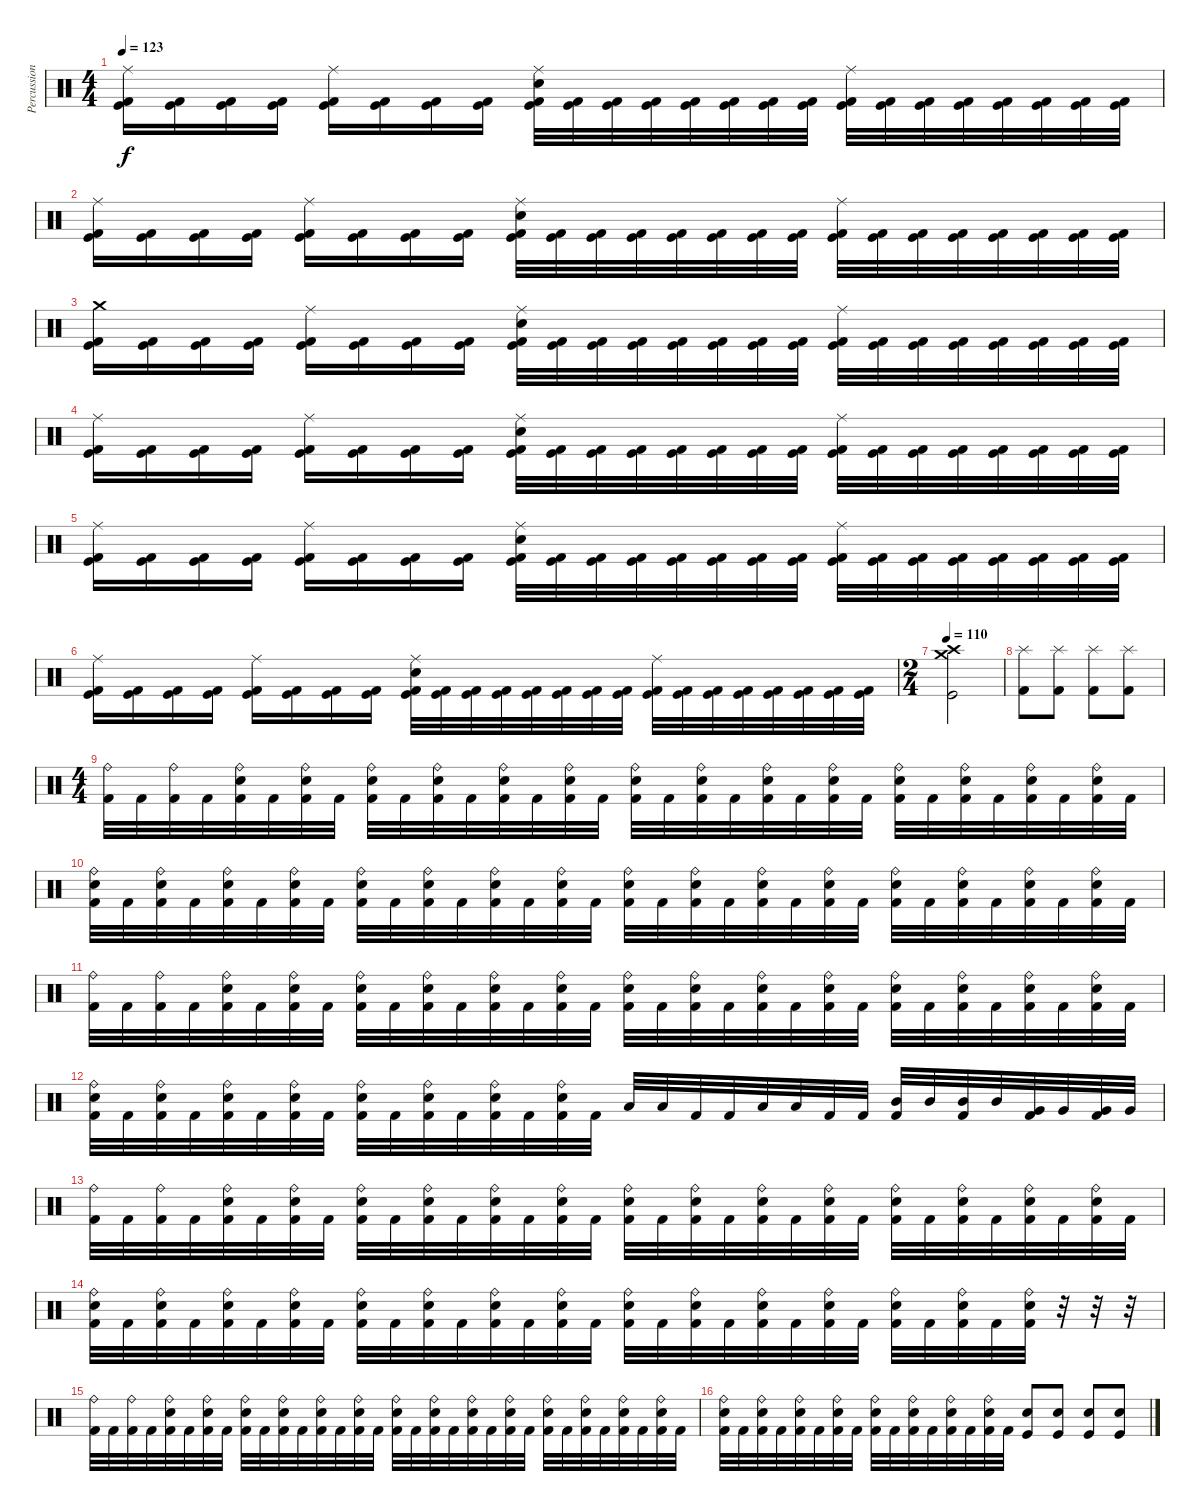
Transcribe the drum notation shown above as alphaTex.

\track ("Percussion" "Percussion") {instrument percussion}
\staff {score}
\articulation defaults
\ts (4 4)
\tempo 123
\clef neutral
\ks c
("Ride (middle)" "Kick (hit)" "Kick (hit) 2").16{dy f} ("Kick (hit)" "Kick (hit) 2").16 ("Kick (hit)" "Kick (hit) 2").16 ("Kick (hit)" "Kick (hit) 2").16 ("Ride (middle)" "Kick (hit)" "Kick (hit) 2").16 ("Kick (hit)" "Kick (hit) 2").16 ("Kick (hit)" "Kick (hit) 2").16 ("Kick (hit)" "Kick (hit) 2").16 ("Ride (middle)" "Kick (hit)" "Kick (hit) 2" "Electric Snare (hit)").32 ("Kick (hit)" "Kick (hit) 2").32 ("Kick (hit)" "Kick (hit) 2").32 ("Kick (hit)" "Kick (hit) 2").32 ("Kick (hit)" "Kick (hit) 2").32 ("Kick (hit)" "Kick (hit) 2").32 ("Kick (hit)" "Kick (hit) 2").32 ("Kick (hit)" "Kick (hit) 2").32 ("Ride (middle)" "Kick (hit)" "Kick (hit) 2").32 ("Kick (hit)" "Kick (hit) 2").32 ("Kick (hit)" "Kick (hit) 2").32 ("Kick (hit)" "Kick (hit) 2").32 ("Kick (hit)" "Kick (hit) 2").32 ("Kick (hit)" "Kick (hit) 2").32 ("Kick (hit)" "Kick (hit) 2").32 ("Kick (hit)" "Kick (hit) 2").32 |
("Ride (middle)" "Kick (hit)" "Kick (hit) 2").16 ("Kick (hit)" "Kick (hit) 2").16 ("Kick (hit)" "Kick (hit) 2").16 ("Kick (hit)" "Kick (hit) 2").16 ("Ride (middle)" "Kick (hit)" "Kick (hit) 2").16 ("Kick (hit)" "Kick (hit) 2").16 ("Kick (hit)" "Kick (hit) 2").16 ("Kick (hit)" "Kick (hit) 2").16 ("Ride (middle)" "Kick (hit)" "Kick (hit) 2" "Electric Snare (hit)").32 ("Kick (hit)" "Kick (hit) 2").32 ("Kick (hit)" "Kick (hit) 2").32 ("Kick (hit)" "Kick (hit) 2").32 ("Kick (hit)" "Kick (hit) 2").32 ("Kick (hit)" "Kick (hit) 2").32 ("Kick (hit)" "Kick (hit) 2").32 ("Kick (hit)" "Kick (hit) 2").32 ("Ride (middle)" "Kick (hit)" "Kick (hit) 2").32 ("Kick (hit)" "Kick (hit) 2").32 ("Kick (hit)" "Kick (hit) 2").32 ("Kick (hit)" "Kick (hit) 2").32 ("Kick (hit)" "Kick (hit) 2").32 ("Kick (hit)" "Kick (hit) 2").32 ("Kick (hit)" "Kick (hit) 2").32 ("Kick (hit)" "Kick (hit) 2").32 |
("Crash medium (hit)" "Kick (hit)" "Kick (hit) 2").16 ("Kick (hit)" "Kick (hit) 2").16 ("Kick (hit)" "Kick (hit) 2").16 ("Kick (hit)" "Kick (hit) 2").16 ("Ride (middle)" "Kick (hit)" "Kick (hit) 2").16 ("Kick (hit)" "Kick (hit) 2").16 ("Kick (hit)" "Kick (hit) 2").16 ("Kick (hit)" "Kick (hit) 2").16 ("Ride (middle)" "Kick (hit)" "Kick (hit) 2" "Electric Snare (hit)").32 ("Kick (hit)" "Kick (hit) 2").32 ("Kick (hit)" "Kick (hit) 2").32 ("Kick (hit)" "Kick (hit) 2").32 ("Kick (hit)" "Kick (hit) 2").32 ("Kick (hit)" "Kick (hit) 2").32 ("Kick (hit)" "Kick (hit) 2").32 ("Kick (hit)" "Kick (hit) 2").32 ("Ride (middle)" "Kick (hit)" "Kick (hit) 2").32 ("Kick (hit)" "Kick (hit) 2").32 ("Kick (hit)" "Kick (hit) 2").32 ("Kick (hit)" "Kick (hit) 2").32 ("Kick (hit)" "Kick (hit) 2").32 ("Kick (hit)" "Kick (hit) 2").32 ("Kick (hit)" "Kick (hit) 2").32 ("Kick (hit)" "Kick (hit) 2").32 |
("Ride (middle)" "Kick (hit)" "Kick (hit) 2").16 ("Kick (hit)" "Kick (hit) 2").16 ("Kick (hit)" "Kick (hit) 2").16 ("Kick (hit)" "Kick (hit) 2").16 ("Ride (middle)" "Kick (hit)" "Kick (hit) 2").16 ("Kick (hit)" "Kick (hit) 2").16 ("Kick (hit)" "Kick (hit) 2").16 ("Kick (hit)" "Kick (hit) 2").16 ("Ride (middle)" "Kick (hit)" "Kick (hit) 2" "Electric Snare (hit)").32 ("Kick (hit)" "Kick (hit) 2").32 ("Kick (hit)" "Kick (hit) 2").32 ("Kick (hit)" "Kick (hit) 2").32 ("Kick (hit)" "Kick (hit) 2").32 ("Kick (hit)" "Kick (hit) 2").32 ("Kick (hit)" "Kick (hit) 2").32 ("Kick (hit)" "Kick (hit) 2").32 ("Ride (middle)" "Kick (hit)" "Kick (hit) 2").32 ("Kick (hit)" "Kick (hit) 2").32 ("Kick (hit)" "Kick (hit) 2").32 ("Kick (hit)" "Kick (hit) 2").32 ("Kick (hit)" "Kick (hit) 2").32 ("Kick (hit)" "Kick (hit) 2").32 ("Kick (hit)" "Kick (hit) 2").32 ("Kick (hit)" "Kick (hit) 2").32 |
("Ride (middle)" "Kick (hit)" "Kick (hit) 2").16 ("Kick (hit)" "Kick (hit) 2").16 ("Kick (hit)" "Kick (hit) 2").16 ("Kick (hit)" "Kick (hit) 2").16 ("Ride (middle)" "Kick (hit)" "Kick (hit) 2").16 ("Kick (hit)" "Kick (hit) 2").16 ("Kick (hit)" "Kick (hit) 2").16 ("Kick (hit)" "Kick (hit) 2").16 ("Ride (middle)" "Kick (hit)" "Kick (hit) 2" "Electric Snare (hit)").32 ("Kick (hit)" "Kick (hit) 2").32 ("Kick (hit)" "Kick (hit) 2").32 ("Kick (hit)" "Kick (hit) 2").32 ("Kick (hit)" "Kick (hit) 2").32 ("Kick (hit)" "Kick (hit) 2").32 ("Kick (hit)" "Kick (hit) 2").32 ("Kick (hit)" "Kick (hit) 2").32 ("Ride (middle)" "Kick (hit)" "Kick (hit) 2").32 ("Kick (hit)" "Kick (hit) 2").32 ("Kick (hit)" "Kick (hit) 2").32 ("Kick (hit)" "Kick (hit) 2").32 ("Kick (hit)" "Kick (hit) 2").32 ("Kick (hit)" "Kick (hit) 2").32 ("Kick (hit)" "Kick (hit) 2").32 ("Kick (hit)" "Kick (hit) 2").32 |
("Ride (middle)" "Kick (hit)" "Kick (hit) 2").16 ("Kick (hit)" "Kick (hit) 2").16 ("Kick (hit)" "Kick (hit) 2").16 ("Kick (hit)" "Kick (hit) 2").16 ("Ride (middle)" "Kick (hit)" "Kick (hit) 2").16 ("Kick (hit)" "Kick (hit) 2").16 ("Kick (hit)" "Kick (hit) 2").16 ("Kick (hit)" "Kick (hit) 2").16 ("Ride (middle)" "Kick (hit)" "Kick (hit) 2" "Electric Snare (hit)").32 ("Kick (hit)" "Kick (hit) 2").32 ("Kick (hit)" "Kick (hit) 2").32 ("Kick (hit)" "Kick (hit) 2").32 ("Kick (hit)" "Kick (hit) 2").32 ("Kick (hit)" "Kick (hit) 2").32 ("Kick (hit)" "Kick (hit) 2").32 ("Kick (hit)" "Kick (hit) 2").32 ("Ride (middle)" "Kick (hit)" "Kick (hit) 2").32 ("Kick (hit)" "Kick (hit) 2").32 ("Kick (hit)" "Kick (hit) 2").32 ("Kick (hit)" "Kick (hit) 2").32 ("Kick (hit)" "Kick (hit) 2").32 ("Kick (hit)" "Kick (hit) 2").32 ("Kick (hit)" "Kick (hit) 2").32 ("Kick (hit)" "Kick (hit) 2").32 |
\ts (2 4)
\tempo 110
("Crash medium (hit)" "Crash high (hit)" "Kick (hit)").2 |
("Splash (hit)" "Kick (hit) 2").8 ("Splash (hit)" "Kick (hit) 2").8 ("Splash (hit)" "Kick (hit) 2").8 ("Splash (hit)" "Kick (hit) 2").8 |
\ts (4 4)
("Ride (bell)" "Kick (hit) 2").32 "Kick (hit) 2".32 ("Ride (bell)" "Kick (hit) 2").32 "Kick (hit) 2".32 ("Ride (bell)" "Electric Snare (hit)" "Kick (hit) 2").32 "Kick (hit) 2".32 ("Ride (bell)" "Electric Snare (hit)" "Kick (hit) 2").32 "Kick (hit) 2".32 ("Ride (bell)" "Electric Snare (hit)" "Kick (hit) 2").32 "Kick (hit) 2".32 ("Ride (bell)" "Electric Snare (hit)" "Kick (hit) 2").32 "Kick (hit) 2".32 ("Ride (bell)" "Electric Snare (hit)" "Kick (hit) 2").32 "Kick (hit) 2".32 ("Ride (bell)" "Electric Snare (hit)" "Kick (hit) 2").32 "Kick (hit) 2".32 ("Ride (bell)" "Electric Snare (hit)" "Kick (hit) 2").32 "Kick (hit) 2".32 ("Ride (bell)" "Electric Snare (hit)" "Kick (hit) 2").32 "Kick (hit) 2".32 ("Ride (bell)" "Electric Snare (hit)" "Kick (hit) 2").32 "Kick (hit) 2".32 ("Ride (bell)" "Electric Snare (hit)" "Kick (hit) 2").32 "Kick (hit) 2".32 ("Ride (bell)" "Electric Snare (hit)" "Kick (hit) 2").32 "Kick (hit) 2".32 ("Ride (bell)" "Electric Snare (hit)" "Kick (hit) 2").32 "Kick (hit) 2".32 ("Ride (bell)" "Electric Snare (hit)" "Kick (hit) 2").32 "Kick (hit) 2".32 ("Ride (bell)" "Electric Snare (hit)" "Kick (hit) 2").32 "Kick (hit) 2".32 |
("Ride (bell)" "Electric Snare (hit)" "Kick (hit) 2").32 "Kick (hit) 2".32 ("Ride (bell)" "Electric Snare (hit)" "Kick (hit) 2").32 "Kick (hit) 2".32 ("Ride (bell)" "Electric Snare (hit)" "Kick (hit) 2").32 "Kick (hit) 2".32 ("Ride (bell)" "Electric Snare (hit)" "Kick (hit) 2").32 "Kick (hit) 2".32 ("Ride (bell)" "Electric Snare (hit)" "Kick (hit) 2").32 "Kick (hit) 2".32 ("Ride (bell)" "Electric Snare (hit)" "Kick (hit) 2").32 "Kick (hit) 2".32 ("Ride (bell)" "Electric Snare (hit)" "Kick (hit) 2").32 "Kick (hit) 2".32 ("Ride (bell)" "Electric Snare (hit)" "Kick (hit) 2").32 "Kick (hit) 2".32 ("Ride (bell)" "Electric Snare (hit)" "Kick (hit) 2").32 "Kick (hit) 2".32 ("Ride (bell)" "Electric Snare (hit)" "Kick (hit) 2").32 "Kick (hit) 2".32 ("Ride (bell)" "Electric Snare (hit)" "Kick (hit) 2").32 "Kick (hit) 2".32 ("Ride (bell)" "Electric Snare (hit)" "Kick (hit) 2").32 "Kick (hit) 2".32 ("Ride (bell)" "Electric Snare (hit)" "Kick (hit) 2").32 "Kick (hit) 2".32 ("Ride (bell)" "Electric Snare (hit)" "Kick (hit) 2").32 "Kick (hit) 2".32 ("Ride (bell)" "Electric Snare (hit)" "Kick (hit) 2").32 "Kick (hit) 2".32 ("Ride (bell)" "Electric Snare (hit)" "Kick (hit) 2").32 "Kick (hit) 2".32 |
("Ride (bell)" "Kick (hit) 2").32 "Kick (hit) 2".32 ("Ride (bell)" "Kick (hit) 2").32 "Kick (hit) 2".32 ("Ride (bell)" "Electric Snare (hit)" "Kick (hit) 2").32 "Kick (hit) 2".32 ("Ride (bell)" "Electric Snare (hit)" "Kick (hit) 2").32 "Kick (hit) 2".32 ("Ride (bell)" "Electric Snare (hit)" "Kick (hit) 2").32 "Kick (hit) 2".32 ("Ride (bell)" "Electric Snare (hit)" "Kick (hit) 2").32 "Kick (hit) 2".32 ("Ride (bell)" "Electric Snare (hit)" "Kick (hit) 2").32 "Kick (hit) 2".32 ("Ride (bell)" "Electric Snare (hit)" "Kick (hit) 2").32 "Kick (hit) 2".32 ("Ride (bell)" "Electric Snare (hit)" "Kick (hit) 2").32 "Kick (hit) 2".32 ("Ride (bell)" "Electric Snare (hit)" "Kick (hit) 2").32 "Kick (hit) 2".32 ("Ride (bell)" "Electric Snare (hit)" "Kick (hit) 2").32 "Kick (hit) 2".32 ("Ride (bell)" "Electric Snare (hit)" "Kick (hit) 2").32 "Kick (hit) 2".32 ("Ride (bell)" "Electric Snare (hit)" "Kick (hit) 2").32 "Kick (hit) 2".32 ("Ride (bell)" "Electric Snare (hit)" "Kick (hit) 2").32 "Kick (hit) 2".32 ("Ride (bell)" "Electric Snare (hit)" "Kick (hit) 2").32 "Kick (hit) 2".32 ("Ride (bell)" "Electric Snare (hit)" "Kick (hit) 2").32 "Kick (hit) 2".32 |
("Ride (bell)" "Electric Snare (hit)" "Kick (hit) 2").32 "Kick (hit) 2".32 ("Ride (bell)" "Electric Snare (hit)" "Kick (hit) 2").32 "Kick (hit) 2".32 ("Ride (bell)" "Electric Snare (hit)" "Kick (hit) 2").32 "Kick (hit) 2".32 ("Ride (bell)" "Electric Snare (hit)" "Kick (hit) 2").32 "Kick (hit) 2".32 ("Ride (bell)" "Electric Snare (hit)" "Kick (hit) 2").32 "Kick (hit) 2".32 ("Ride (bell)" "Electric Snare (hit)" "Kick (hit) 2").32 "Kick (hit) 2".32 ("Ride (bell)" "Electric Snare (hit)" "Kick (hit) 2").32 "Kick (hit) 2".32 ("Ride (bell)" "Electric Snare (hit)" "Kick (hit) 2").32 "Kick (hit) 2".32 "Low Tom (hit)".32 "Low Tom (hit)".32 "Kick (hit) 2".32 "Kick (hit) 2".32 "Low Tom (hit)".32 "Low Tom (hit)".32 "Kick (hit) 2".32 "Kick (hit) 2".32 ("Mid Tom (hit)" "Kick (hit) 2").32 "Mid Tom (hit)".32 ("Mid Tom (hit)" "Kick (hit) 2").32 "Mid Tom (hit)".32 ("Very Low Tom (hit)" "Kick (hit) 2").32 "Very Low Tom (hit)".32 ("Very Low Tom (hit)" "Kick (hit) 2").32 "Very Low Tom (hit)".32 |
("Ride (bell)" "Kick (hit) 2").32 "Kick (hit) 2".32 ("Ride (bell)" "Kick (hit) 2").32 "Kick (hit) 2".32 ("Ride (bell)" "Electric Snare (hit)" "Kick (hit) 2").32 "Kick (hit) 2".32 ("Ride (bell)" "Electric Snare (hit)" "Kick (hit) 2").32 "Kick (hit) 2".32 ("Ride (bell)" "Electric Snare (hit)" "Kick (hit) 2").32 "Kick (hit) 2".32 ("Ride (bell)" "Electric Snare (hit)" "Kick (hit) 2").32 "Kick (hit) 2".32 ("Ride (bell)" "Electric Snare (hit)" "Kick (hit) 2").32 "Kick (hit) 2".32 ("Ride (bell)" "Electric Snare (hit)" "Kick (hit) 2").32 "Kick (hit) 2".32 ("Ride (bell)" "Electric Snare (hit)" "Kick (hit) 2").32 "Kick (hit) 2".32 ("Ride (bell)" "Electric Snare (hit)" "Kick (hit) 2").32 "Kick (hit) 2".32 ("Ride (bell)" "Electric Snare (hit)" "Kick (hit) 2").32 "Kick (hit) 2".32 ("Ride (bell)" "Electric Snare (hit)" "Kick (hit) 2").32 "Kick (hit) 2".32 ("Ride (bell)" "Electric Snare (hit)" "Kick (hit) 2").32 "Kick (hit) 2".32 ("Ride (bell)" "Electric Snare (hit)" "Kick (hit) 2").32 "Kick (hit) 2".32 ("Ride (bell)" "Electric Snare (hit)" "Kick (hit) 2").32 "Kick (hit) 2".32 ("Ride (bell)" "Electric Snare (hit)" "Kick (hit) 2").32 "Kick (hit) 2".32 |
("Ride (bell)" "Electric Snare (hit)" "Kick (hit) 2").32 "Kick (hit) 2".32 ("Ride (bell)" "Electric Snare (hit)" "Kick (hit) 2").32 "Kick (hit) 2".32 ("Ride (bell)" "Electric Snare (hit)" "Kick (hit) 2").32 "Kick (hit) 2".32 ("Ride (bell)" "Electric Snare (hit)" "Kick (hit) 2").32 "Kick (hit) 2".32 ("Ride (bell)" "Electric Snare (hit)" "Kick (hit) 2").32 "Kick (hit) 2".32 ("Ride (bell)" "Electric Snare (hit)" "Kick (hit) 2").32 "Kick (hit) 2".32 ("Ride (bell)" "Electric Snare (hit)" "Kick (hit) 2").32 "Kick (hit) 2".32 ("Ride (bell)" "Electric Snare (hit)" "Kick (hit) 2").32 "Kick (hit) 2".32 ("Ride (bell)" "Electric Snare (hit)" "Kick (hit) 2").32 "Kick (hit) 2".32 ("Ride (bell)" "Electric Snare (hit)" "Kick (hit) 2").32 "Kick (hit) 2".32 ("Ride (bell)" "Electric Snare (hit)" "Kick (hit) 2").32 "Kick (hit) 2".32 ("Ride (bell)" "Electric Snare (hit)" "Kick (hit) 2").32 "Kick (hit) 2".32 ("Ride (bell)" "Electric Snare (hit)" "Kick (hit) 2").32 "Kick (hit) 2".32 ("Ride (bell)" "Electric Snare (hit)" "Kick (hit) 2").32 "Kick (hit) 2".32 ("Ride (bell)" "Electric Snare (hit)" "Kick (hit) 2").32 r.32 r.32 r.32 |
("Ride (bell)" "Kick (hit) 2").32 "Kick (hit) 2".32 ("Ride (bell)" "Kick (hit) 2").32 "Kick (hit) 2".32 ("Ride (bell)" "Electric Snare (hit)" "Kick (hit) 2").32 "Kick (hit) 2".32 ("Ride (bell)" "Electric Snare (hit)" "Kick (hit) 2").32 "Kick (hit) 2".32 ("Ride (bell)" "Electric Snare (hit)" "Kick (hit) 2").32 "Kick (hit) 2".32 ("Ride (bell)" "Electric Snare (hit)" "Kick (hit) 2").32 "Kick (hit) 2".32 ("Ride (bell)" "Electric Snare (hit)" "Kick (hit) 2").32 "Kick (hit) 2".32 ("Ride (bell)" "Electric Snare (hit)" "Kick (hit) 2").32 "Kick (hit) 2".32 ("Ride (bell)" "Electric Snare (hit)" "Kick (hit) 2").32 "Kick (hit) 2".32 ("Ride (bell)" "Electric Snare (hit)" "Kick (hit) 2").32 "Kick (hit) 2".32 ("Ride (bell)" "Electric Snare (hit)" "Kick (hit) 2").32 "Kick (hit) 2".32 ("Ride (bell)" "Electric Snare (hit)" "Kick (hit) 2").32 "Kick (hit) 2".32 ("Ride (bell)" "Electric Snare (hit)" "Kick (hit) 2").32 "Kick (hit) 2".32 ("Ride (bell)" "Electric Snare (hit)" "Kick (hit) 2").32 "Kick (hit) 2".32 ("Ride (bell)" "Electric Snare (hit)" "Kick (hit) 2").32 "Kick (hit) 2".32 ("Ride (bell)" "Electric Snare (hit)" "Kick (hit) 2").32 "Kick (hit) 2".32 |
("Ride (bell)" "Electric Snare (hit)" "Kick (hit) 2").32 "Kick (hit) 2".32 ("Ride (bell)" "Electric Snare (hit)" "Kick (hit) 2").32 "Kick (hit) 2".32 ("Ride (bell)" "Electric Snare (hit)" "Kick (hit) 2").32 "Kick (hit) 2".32 ("Ride (bell)" "Electric Snare (hit)" "Kick (hit) 2").32 "Kick (hit) 2".32 ("Ride (bell)" "Electric Snare (hit)" "Kick (hit) 2").32 "Kick (hit) 2".32 ("Ride (bell)" "Electric Snare (hit)" "Kick (hit) 2").32 "Kick (hit) 2".32 ("Ride (bell)" "Electric Snare (hit)" "Kick (hit) 2").32 "Kick (hit) 2".32 ("Ride (bell)" "Electric Snare (hit)" "Kick (hit) 2").32 "Kick (hit) 2".32 ("Electric Snare (hit)" "Kick (hit)").8 ("Electric Snare (hit)" "Kick (hit)").8 ("Electric Snare (hit)" "Kick (hit)").8 ("Electric Snare (hit)" "Kick (hit)").8
